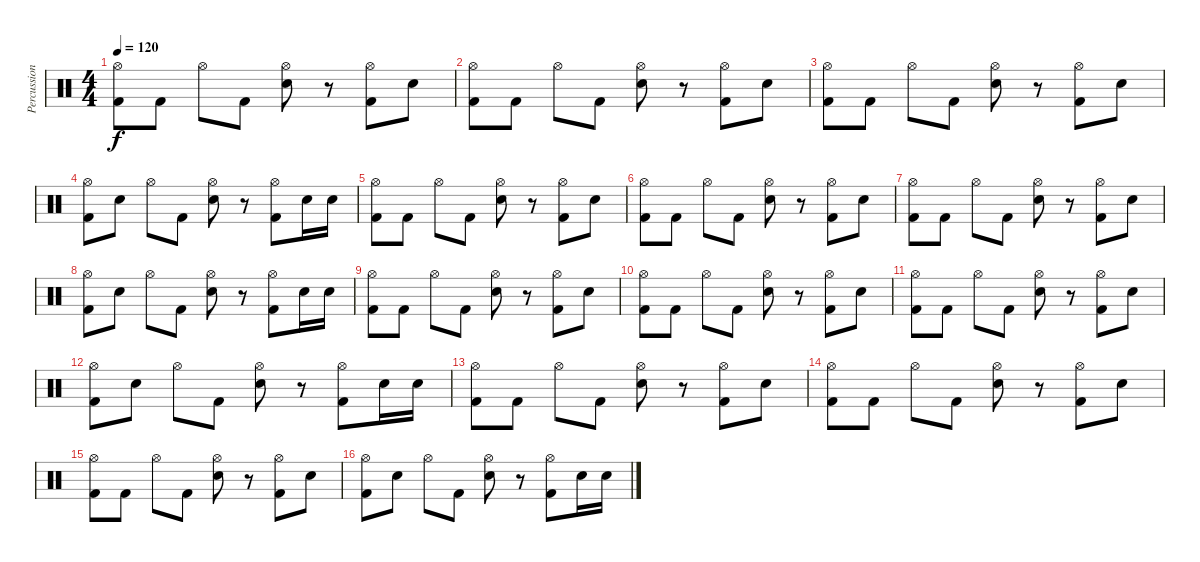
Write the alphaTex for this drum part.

\track ("Percussion" "Percussion") {instrument percussion}
\staff {score}
\articulation defaults
\ts (4 4)
\tempo 120
\clef neutral
\ks c
("Hi-Hat (open)" "Kick (hit) 2").8{dy f volume 13} "Kick (hit) 2".8 "Hi-Hat (open)".8 "Kick (hit) 2".8 ("Hi-Hat (open)" "Snare (hit) 2").8 r.8 ("Hi-Hat (open)" "Kick (hit) 2").8 "Snare (hit) 2".8 |
("Hi-Hat (open)" "Kick (hit) 2").8 "Kick (hit) 2".8 "Hi-Hat (open)".8 "Kick (hit) 2".8 ("Hi-Hat (open)" "Snare (hit) 2").8 r.8 ("Hi-Hat (open)" "Kick (hit) 2").8 "Snare (hit) 2".8 |
("Hi-Hat (open)" "Kick (hit) 2").8 "Kick (hit) 2".8 "Hi-Hat (open)".8 "Kick (hit) 2".8 ("Hi-Hat (open)" "Snare (hit) 2").8 r.8 ("Hi-Hat (open)" "Kick (hit) 2").8 "Snare (hit) 2".8 |
("Hi-Hat (open)" "Kick (hit) 2").8 "Snare (hit) 2".8 "Hi-Hat (open)".8 "Kick (hit) 2".8 ("Hi-Hat (open)" "Snare (hit) 2").8 r.8 ("Hi-Hat (open)" "Kick (hit) 2").8 "Snare (hit) 2".16 "Snare (hit) 2".16 |
("Hi-Hat (open)" "Kick (hit) 2").8{volume 13} "Kick (hit) 2".8 "Hi-Hat (open)".8 "Kick (hit) 2".8 ("Hi-Hat (open)" "Snare (hit) 2").8 r.8 ("Hi-Hat (open)" "Kick (hit) 2").8 "Snare (hit) 2".8 |
("Hi-Hat (open)" "Kick (hit) 2").8 "Kick (hit) 2".8 "Hi-Hat (open)".8 "Kick (hit) 2".8 ("Hi-Hat (open)" "Snare (hit) 2").8 r.8 ("Hi-Hat (open)" "Kick (hit) 2").8 "Snare (hit) 2".8 |
("Hi-Hat (open)" "Kick (hit) 2").8 "Kick (hit) 2".8 "Hi-Hat (open)".8 "Kick (hit) 2".8 ("Hi-Hat (open)" "Snare (hit) 2").8 r.8 ("Hi-Hat (open)" "Kick (hit) 2").8 "Snare (hit) 2".8 |
("Hi-Hat (open)" "Kick (hit) 2").8 "Snare (hit) 2".8 "Hi-Hat (open)".8 "Kick (hit) 2".8 ("Hi-Hat (open)" "Snare (hit) 2").8 r.8 ("Hi-Hat (open)" "Kick (hit) 2").8 "Snare (hit) 2".16 "Snare (hit) 2".16 |
("Hi-Hat (open)" "Kick (hit) 2").8{volume 13} "Kick (hit) 2".8 "Hi-Hat (open)".8 "Kick (hit) 2".8 ("Hi-Hat (open)" "Snare (hit) 2").8 r.8 ("Hi-Hat (open)" "Kick (hit) 2").8 "Snare (hit) 2".8 |
("Hi-Hat (open)" "Kick (hit) 2").8 "Kick (hit) 2".8 "Hi-Hat (open)".8 "Kick (hit) 2".8 ("Hi-Hat (open)" "Snare (hit) 2").8 r.8 ("Hi-Hat (open)" "Kick (hit) 2").8 "Snare (hit) 2".8 |
("Hi-Hat (open)" "Kick (hit) 2").8 "Kick (hit) 2".8 "Hi-Hat (open)".8 "Kick (hit) 2".8 ("Hi-Hat (open)" "Snare (hit) 2").8 r.8 ("Hi-Hat (open)" "Kick (hit) 2").8 "Snare (hit) 2".8 |
("Hi-Hat (open)" "Kick (hit) 2").8 "Snare (hit) 2".8 "Hi-Hat (open)".8 "Kick (hit) 2".8 ("Hi-Hat (open)" "Snare (hit) 2").8 r.8 ("Hi-Hat (open)" "Kick (hit) 2").8 "Snare (hit) 2".16 "Snare (hit) 2".16 |
("Hi-Hat (open)" "Kick (hit) 2").8{volume 13} "Kick (hit) 2".8 "Hi-Hat (open)".8 "Kick (hit) 2".8 ("Hi-Hat (open)" "Snare (hit) 2").8 r.8 ("Hi-Hat (open)" "Kick (hit) 2").8 "Snare (hit) 2".8 |
("Hi-Hat (open)" "Kick (hit) 2").8 "Kick (hit) 2".8 "Hi-Hat (open)".8 "Kick (hit) 2".8 ("Hi-Hat (open)" "Snare (hit) 2").8 r.8 ("Hi-Hat (open)" "Kick (hit) 2").8 "Snare (hit) 2".8 |
("Hi-Hat (open)" "Kick (hit) 2").8 "Kick (hit) 2".8 "Hi-Hat (open)".8 "Kick (hit) 2".8 ("Hi-Hat (open)" "Snare (hit) 2").8 r.8 ("Hi-Hat (open)" "Kick (hit) 2").8 "Snare (hit) 2".8 |
("Hi-Hat (open)" "Kick (hit) 2").8 "Snare (hit) 2".8 "Hi-Hat (open)".8 "Kick (hit) 2".8 ("Hi-Hat (open)" "Snare (hit) 2").8 r.8 ("Hi-Hat (open)" "Kick (hit) 2").8 "Snare (hit) 2".16 "Snare (hit) 2".16
